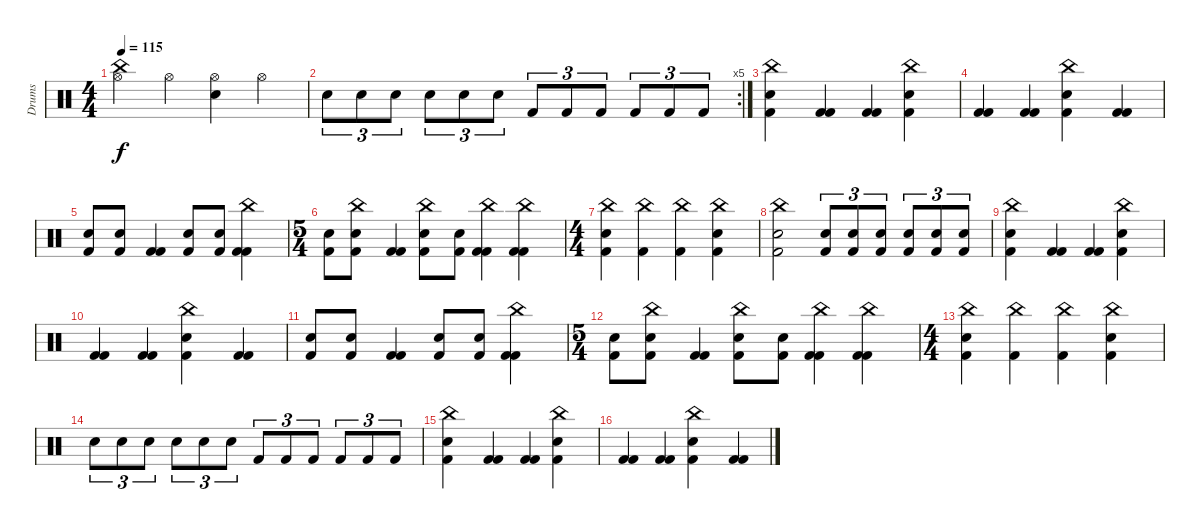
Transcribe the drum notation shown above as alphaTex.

\track ("Drums" "Drums") {instrument percussion}
\staff {score}
\articulation defaults
\ts (4 4)
\tempo 115
\clef neutral
\ks c
("Hi-Hat (open)" "China (hit)").4{dy f} "Hi-Hat (open)".4 ("Hi-Hat (open)" "Snare (hit) 2").4 "Hi-Hat (open)".4 |
\rc 5 "Snare (hit) 2".8{tu (3 2)} "Snare (hit) 2".8{tu (3 2)} "Snare (hit) 2".8{tu (3 2)} "Snare (hit) 2".8{tu (3 2)} "Snare (hit) 2".8{tu (3 2)} "Snare (hit) 2".8{tu (3 2)} "Kick (hit) 2".8{tu (3 2)} "Kick (hit) 2".8{tu (3 2)} "Kick (hit) 2".8{tu (3 2)} "Kick (hit) 2".8{tu (3 2)} "Kick (hit) 2".8{tu (3 2)} "Kick (hit) 2".8{tu (3 2)}
|
("China (hit)" "Kick (hit) 2" "Snare (hit) 2").4 ("Kick (hit) 2" "Kick (hit) 2").4 ("Kick (hit) 2" "Kick (hit) 2").4 ("China (hit)" "Kick (hit) 2" "Snare (hit) 2").4 |
("Kick (hit) 2" "Kick (hit) 2").4 ("Kick (hit) 2" "Kick (hit) 2").4 ("China (hit)" "Kick (hit) 2" "Snare (hit) 2").4 ("Kick (hit) 2" "Kick (hit) 2").4 |
("Kick (hit) 2" "Snare (hit) 2").8 ("Kick (hit) 2" "Snare (hit) 2").8 ("Kick (hit) 2" "Kick (hit) 2").4 ("Kick (hit) 2" "Snare (hit) 2").8 ("Kick (hit) 2" "Snare (hit) 2").8 ("China (hit)" "Kick (hit) 2" "Kick (hit) 2").4 |
\ts (5 4)
("Kick (hit) 2" "Snare (hit) 2").8 ("China (hit)" "Kick (hit) 2" "Snare (hit) 2").8 ("Kick (hit) 2" "Kick (hit) 2").4 ("China (hit)" "Kick (hit) 2" "Snare (hit) 2").8 ("Kick (hit) 2" "Snare (hit) 2").8 ("China (hit)" "Kick (hit) 2" "Kick (hit) 2").4 ("China (hit)" "Kick (hit) 2" "Kick (hit) 2").4 |
\ts (4 4)
("China (hit)" "Kick (hit) 2" "Snare (hit) 2").4 ("China (hit)" "Kick (hit) 2").4 ("China (hit)" "Kick (hit) 2").4 ("China (hit)" "Kick (hit) 2" "Snare (hit) 2").4 |
("China (hit)" "Kick (hit) 2" "Snare (hit) 2").2 ("Kick (hit) 2" "Snare (hit) 2").8{tu (3 2)} ("Kick (hit) 2" "Snare (hit) 2").8{tu (3 2)} ("Kick (hit) 2" "Snare (hit) 2").8{tu (3 2)} ("Kick (hit) 2" "Snare (hit) 2").8{tu (3 2)} ("Kick (hit) 2" "Snare (hit) 2").8{tu (3 2)} ("Kick (hit) 2" "Snare (hit) 2").8{tu (3 2)} |
("China (hit)" "Kick (hit) 2" "Snare (hit) 2").4 ("Kick (hit) 2" "Kick (hit) 2").4 ("Kick (hit) 2" "Kick (hit) 2").4 ("China (hit)" "Kick (hit) 2" "Snare (hit) 2").4 |
("Kick (hit) 2" "Kick (hit) 2").4 ("Kick (hit) 2" "Kick (hit) 2").4 ("China (hit)" "Kick (hit) 2" "Snare (hit) 2").4 ("Kick (hit) 2" "Kick (hit) 2").4 |
("Kick (hit) 2" "Snare (hit) 2").8 ("Kick (hit) 2" "Snare (hit) 2").8 ("Kick (hit) 2" "Kick (hit) 2").4 ("Kick (hit) 2" "Snare (hit) 2").8 ("Kick (hit) 2" "Snare (hit) 2").8 ("China (hit)" "Kick (hit) 2" "Kick (hit) 2").4 |
\ts (5 4)
("Kick (hit) 2" "Snare (hit) 2").8 ("China (hit)" "Kick (hit) 2" "Snare (hit) 2").8 ("Kick (hit) 2" "Kick (hit) 2").4 ("China (hit)" "Kick (hit) 2" "Snare (hit) 2").8 ("Kick (hit) 2" "Snare (hit) 2").8 ("China (hit)" "Kick (hit) 2" "Kick (hit) 2").4 ("China (hit)" "Kick (hit) 2" "Kick (hit) 2").4 |
\ts (4 4)
("China (hit)" "Kick (hit) 2" "Snare (hit) 2").4 ("China (hit)" "Kick (hit) 2").4 ("China (hit)" "Kick (hit) 2").4 ("China (hit)" "Kick (hit) 2" "Snare (hit) 2").4 |
"Snare (hit) 2".8{tu (3 2)} "Snare (hit) 2".8{tu (3 2)} "Snare (hit) 2".8{tu (3 2)} "Snare (hit) 2".8{tu (3 2)} "Snare (hit) 2".8{tu (3 2)} "Snare (hit) 2".8{tu (3 2)} "Kick (hit) 2".8{tu (3 2)} "Kick (hit) 2".8{tu (3 2)} "Kick (hit) 2".8{tu (3 2)} "Kick (hit) 2".8{tu (3 2)} "Kick (hit) 2".8{tu (3 2)} "Kick (hit) 2".8{tu (3 2)} |
("China (hit)" "Kick (hit) 2" "Snare (hit) 2").4 ("Kick (hit) 2" "Kick (hit) 2").4 ("Kick (hit) 2" "Kick (hit) 2").4 ("China (hit)" "Kick (hit) 2" "Snare (hit) 2").4 |
("Kick (hit) 2" "Kick (hit) 2").4 ("Kick (hit) 2" "Kick (hit) 2").4 ("China (hit)" "Kick (hit) 2" "Snare (hit) 2").4 ("Kick (hit) 2" "Kick (hit) 2").4
